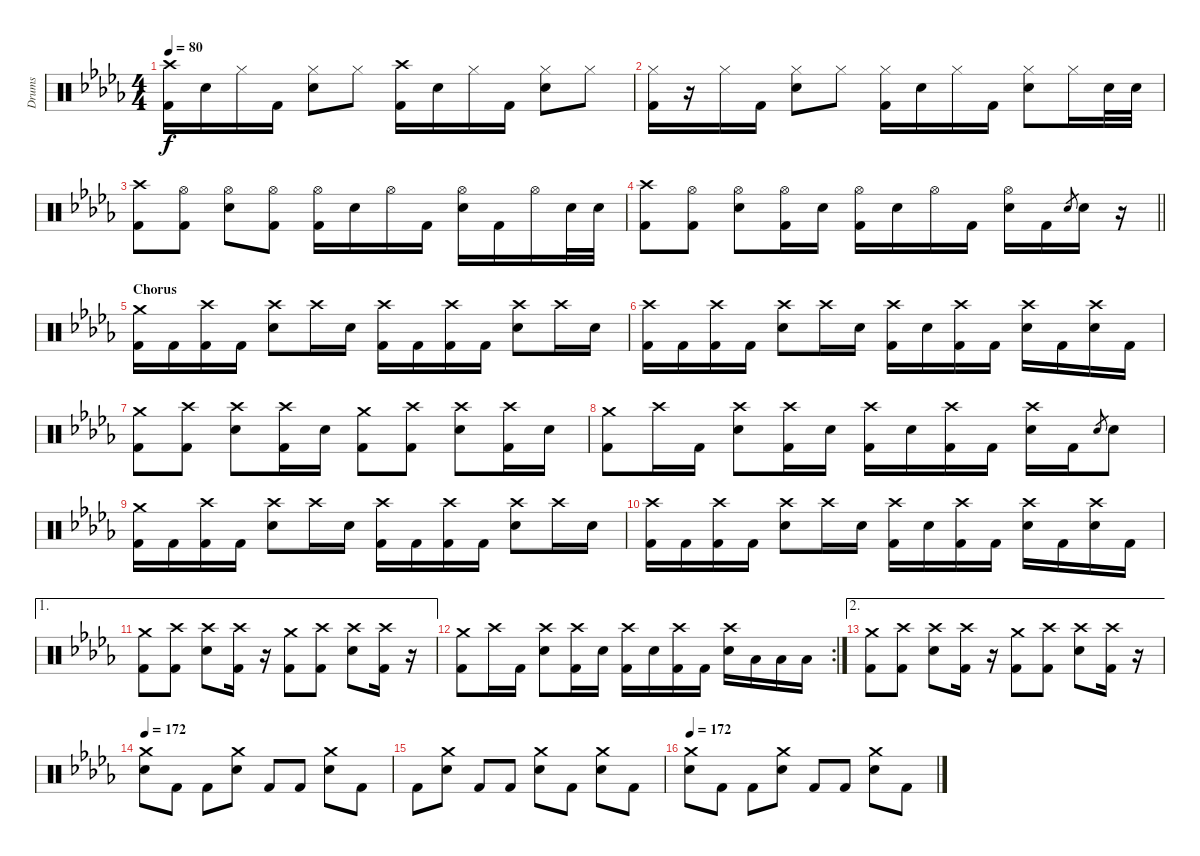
\track ("Drums" "Drums") {instrument percussion}
\staff {score}
\articulation defaults
\ts (4 4)
\tempo 80
\clef neutral
\ks db
("Crash high (hit)" "Kick (hit) 2").16{dy f} "Snare (hit) 2".16 "Hi-Hat (closed)".16 "Kick (hit) 2".16 ("Hi-Hat (closed)" "Snare (hit) 2").8 "Hi-Hat (closed)".8 ("Crash high (hit)" "Kick (hit) 2").16 "Snare (hit) 2".16 "Hi-Hat (closed)".16 "Kick (hit) 2".16 ("Hi-Hat (closed)" "Snare (hit) 2").8 "Hi-Hat (closed)".8 |
("Hi-Hat (closed)" "Kick (hit) 2").16 r.16 "Hi-Hat (closed)".16 "Kick (hit) 2".16 ("Hi-Hat (closed)" "Snare (hit) 2").8 "Hi-Hat (closed)".8 ("Hi-Hat (closed)" "Kick (hit) 2").16 "Snare (hit) 2".16 "Hi-Hat (closed)".16 "Kick (hit) 2".16 ("Hi-Hat (closed)" "Snare (hit) 2").8 "Hi-Hat (closed)".16 "Snare (hit) 2".32 "Snare (hit) 2".32 |
("Crash high (hit)" "Kick (hit) 2").8 ("Hi-Hat (open)" "Kick (hit) 2").8 ("Hi-Hat (open)" "Snare (hit) 2").8 ("Hi-Hat (open)" "Kick (hit) 2").8 ("Hi-Hat (open)" "Kick (hit) 2").16 "Snare (hit) 2".16 "Hi-Hat (open)".16 "Kick (hit) 2".16 ("Hi-Hat (open)" "Snare (hit) 2").16 "Kick (hit) 2".16 "Hi-Hat (open)".16 "Snare (hit) 2".32 "Snare (hit) 2".32 |
\barLineRight lightlight
("Crash high (hit)" "Kick (hit) 2").8 ("Hi-Hat (open)" "Kick (hit) 2").8 ("Hi-Hat (open)" "Snare (hit) 2").8 ("Hi-Hat (open)" "Kick (hit) 2").16 "Snare (hit) 2".16 ("Hi-Hat (open)" "Kick (hit) 2").16 "Snare (hit) 2".16 "Hi-Hat (open)".16 "Kick (hit) 2".16 ("Hi-Hat (open)" "Snare (hit) 2").16 "Kick (hit) 2".16 "Snare (hit) 2".8{gr} "Snare (hit) 2".16 r.16 |
\section ("" "Chorus")
("Crash medium (hit)" "Kick (hit) 2").16 "Kick (hit) 2".16 ("Crash high (hit)" "Kick (hit) 2").16 "Kick (hit) 2".16 ("Crash high (hit)" "Snare (hit) 2").8 "Crash high (hit)".16 "Snare (hit) 2".16 ("Crash high (hit)" "Kick (hit) 2").16 "Kick (hit) 2".16 ("Crash high (hit)" "Kick (hit) 2").16 "Kick (hit) 2".16 ("Crash high (hit)" "Snare (hit) 2").8 "Crash high (hit)".16 "Snare (hit) 2".16 |
("Crash high (hit)" "Kick (hit) 2").16 "Kick (hit) 2".16 ("Crash high (hit)" "Kick (hit) 2").16 "Kick (hit) 2".16 ("Crash high (hit)" "Snare (hit) 2").8 "Crash high (hit)".16 "Snare (hit) 2".16 ("Crash high (hit)" "Kick (hit) 2").16 "Snare (hit) 2".16 ("Crash high (hit)" "Kick (hit) 2").16 "Kick (hit) 2".16 ("Crash high (hit)" "Snare (hit) 2").16 "Kick (hit) 2".16 ("Crash high (hit)" "Snare (hit) 2").16 "Kick (hit) 2".16 |
("Crash medium (hit)" "Kick (hit) 2").8 ("Crash high (hit)" "Kick (hit) 2").8 ("Crash high (hit)" "Snare (hit) 2").8 ("Crash high (hit)" "Kick (hit) 2").16 "Snare (hit) 2".16 ("Crash medium (hit)" "Kick (hit) 2").8 ("Crash high (hit)" "Kick (hit) 2").8 ("Crash high (hit)" "Snare (hit) 2").8 ("Crash high (hit)" "Kick (hit) 2").16 "Snare (hit) 2".16 |
("Crash medium (hit)" "Kick (hit) 2").8 "Crash high (hit)".16 "Kick (hit) 2".16 ("Crash high (hit)" "Snare (hit) 2").8 ("Crash high (hit)" "Kick (hit) 2").16 "Snare (hit) 2".16 ("Crash high (hit)" "Kick (hit) 2").16 "Snare (hit) 2".16 ("Crash high (hit)" "Kick (hit) 2").16 "Kick (hit) 2".16 ("Crash high (hit)" "Snare (hit) 2").16 "Kick (hit) 2".16 "Snare (hit) 2".8{gr} "Snare (hit) 2".8 |
("Crash medium (hit)" "Kick (hit) 2").16 "Kick (hit) 2".16 ("Crash high (hit)" "Kick (hit) 2").16 "Kick (hit) 2".16 ("Crash high (hit)" "Snare (hit) 2").8 "Crash high (hit)".16 "Snare (hit) 2".16 ("Crash high (hit)" "Kick (hit) 2").16 "Kick (hit) 2".16 ("Crash high (hit)" "Kick (hit) 2").16 "Kick (hit) 2".16 ("Crash high (hit)" "Snare (hit) 2").8 "Crash high (hit)".16 "Snare (hit) 2".16 |
("Crash high (hit)" "Kick (hit) 2").16 "Kick (hit) 2".16 ("Crash high (hit)" "Kick (hit) 2").16 "Kick (hit) 2".16 ("Crash high (hit)" "Snare (hit) 2").8 "Crash high (hit)".16 "Snare (hit) 2".16 ("Crash high (hit)" "Kick (hit) 2").16 "Snare (hit) 2".16 ("Crash high (hit)" "Kick (hit) 2").16 "Kick (hit) 2".16 ("Crash high (hit)" "Snare (hit) 2").16 "Kick (hit) 2".16 ("Crash high (hit)" "Snare (hit) 2").16 "Kick (hit) 2".16 |
\ae 1
("Crash medium (hit)" "Kick (hit) 2").8 ("Crash high (hit)" "Kick (hit) 2").8 ("Crash high (hit)" "Snare (hit) 2").8 ("Crash high (hit)" "Kick (hit) 2").16 r.16 ("Crash medium (hit)" "Kick (hit) 2").8 ("Crash high (hit)" "Kick (hit) 2").8 ("Crash high (hit)" "Snare (hit) 2").8 ("Crash high (hit)" "Kick (hit) 2").16 r.16 |
\rc 2
("Crash medium (hit)" "Kick (hit) 2").8 "Crash high (hit)".16 "Kick (hit) 2".16 ("Crash high (hit)" "Snare (hit) 2").8 ("Crash high (hit)" "Kick (hit) 2").16 "Snare (hit) 2".16 ("Crash high (hit)" "Kick (hit) 2").16 "Snare (hit) 2".16 ("Crash high (hit)" "Kick (hit) 2").16 "Kick (hit) 2".16 ("Crash high (hit)" "Snare (hit) 2").16 "Low Tom (hit)".16 "Low Tom (hit)".16 "Low Tom (hit)".16 |
\ae 2
("Crash medium (hit)" "Kick (hit) 2").8 ("Crash high (hit)" "Kick (hit) 2").8 ("Crash high (hit)" "Snare (hit) 2").8 ("Crash high (hit)" "Kick (hit) 2").16 r.16 ("Crash medium (hit)" "Kick (hit) 2").8 ("Crash high (hit)" "Kick (hit) 2").8 ("Crash high (hit)" "Snare (hit) 2").8 ("Crash high (hit)" "Kick (hit) 2").16 r.16 |
\tempo 172
("Crash medium (hit)" "Snare (hit) 2").8 "Kick (hit) 2".8 "Kick (hit) 2".8 ("Crash medium (hit)" "Snare (hit) 2").8 "Kick (hit) 2".8 "Kick (hit) 2".8 ("Crash medium (hit)" "Snare (hit) 2").8 "Kick (hit) 2".8 |
"Kick (hit) 2".8 ("Crash medium (hit)" "Snare (hit) 2").8 "Kick (hit) 2".8 "Kick (hit) 2".8 ("Crash medium (hit)" "Snare (hit) 2").8 "Kick (hit) 2".8 ("Crash medium (hit)" "Snare (hit) 2").8 "Kick (hit) 2".8 |
\tempo 172
("Crash medium (hit)" "Snare (hit) 2").8 "Kick (hit) 2".8 "Kick (hit) 2".8 ("Crash medium (hit)" "Snare (hit) 2").8 "Kick (hit) 2".8 "Kick (hit) 2".8 ("Crash medium (hit)" "Snare (hit) 2").8 "Kick (hit) 2".8
